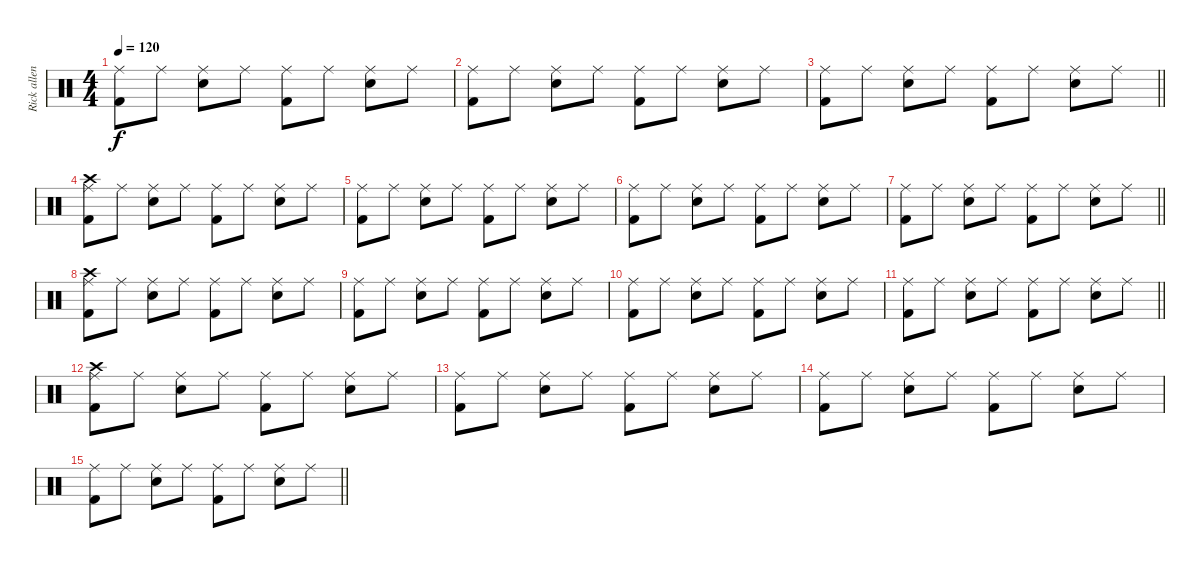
\track ("Rick allen" "Rick allen") {instrument percussion}
\staff {score}
\articulation defaults
\ts (4 4)
\tempo 120
\clef neutral
\ks c
("Ride (middle)" "Kick (hit) 2").8{dy f} "Ride (middle)".8 ("Ride (middle)" "Snare (hit) 2").8 "Ride (middle)".8 ("Ride (middle)" "Kick (hit) 2").8 "Ride (middle)".8 ("Ride (middle)" "Snare (hit) 2").8 "Ride (middle)".8 |
("Ride (middle)" "Kick (hit) 2").8 "Ride (middle)".8 ("Ride (middle)" "Snare (hit) 2").8 "Ride (middle)".8 ("Ride (middle)" "Kick (hit) 2").8 "Ride (middle)".8 ("Ride (middle)" "Snare (hit) 2").8 "Ride (middle)".8 |
\barLineRight lightlight
("Ride (middle)" "Kick (hit) 2").8 "Ride (middle)".8 ("Ride (middle)" "Snare (hit) 2").8 "Ride (middle)".8 ("Ride (middle)" "Kick (hit) 2").8 "Ride (middle)".8 ("Ride (middle)" "Snare (hit) 2").8 "Ride (middle)".8 |
("Crash high (hit)" "Ride (middle)" "Kick (hit) 2").8 "Ride (middle)".8 ("Ride (middle)" "Snare (hit) 2").8 "Ride (middle)".8 ("Ride (middle)" "Kick (hit) 2").8 "Ride (middle)".8 ("Ride (middle)" "Snare (hit) 2").8 "Ride (middle)".8 |
("Ride (middle)" "Kick (hit) 2").8 "Ride (middle)".8 ("Ride (middle)" "Snare (hit) 2").8 "Ride (middle)".8 ("Ride (middle)" "Kick (hit) 2").8 "Ride (middle)".8 ("Ride (middle)" "Snare (hit) 2").8 "Ride (middle)".8 |
("Ride (middle)" "Kick (hit) 2").8 "Ride (middle)".8 ("Ride (middle)" "Snare (hit) 2").8 "Ride (middle)".8 ("Ride (middle)" "Kick (hit) 2").8 "Ride (middle)".8 ("Ride (middle)" "Snare (hit) 2").8 "Ride (middle)".8 |
\barLineRight lightlight
("Ride (middle)" "Kick (hit) 2").8 "Ride (middle)".8 ("Ride (middle)" "Snare (hit) 2").8 "Ride (middle)".8 ("Ride (middle)" "Kick (hit) 2").8 "Ride (middle)".8 ("Ride (middle)" "Snare (hit) 2").8 "Ride (middle)".8 |
("Crash high (hit)" "Ride (middle)" "Kick (hit) 2").8 "Ride (middle)".8 ("Ride (middle)" "Snare (hit) 2").8 "Ride (middle)".8 ("Ride (middle)" "Kick (hit) 2").8 "Ride (middle)".8 ("Ride (middle)" "Snare (hit) 2").8 "Ride (middle)".8 |
("Ride (middle)" "Kick (hit) 2").8 "Ride (middle)".8 ("Ride (middle)" "Snare (hit) 2").8 "Ride (middle)".8 ("Ride (middle)" "Kick (hit) 2").8 "Ride (middle)".8 ("Ride (middle)" "Snare (hit) 2").8 "Ride (middle)".8 |
("Ride (middle)" "Kick (hit) 2").8 "Ride (middle)".8 ("Ride (middle)" "Snare (hit) 2").8 "Ride (middle)".8 ("Ride (middle)" "Kick (hit) 2").8 "Ride (middle)".8 ("Ride (middle)" "Snare (hit) 2").8 "Ride (middle)".8 |
\barLineRight lightlight
("Ride (middle)" "Kick (hit) 2").8 "Ride (middle)".8 ("Ride (middle)" "Snare (hit) 2").8 "Ride (middle)".8 ("Ride (middle)" "Kick (hit) 2").8 "Ride (middle)".8 ("Ride (middle)" "Snare (hit) 2").8 "Ride (middle)".8 |
("Crash high (hit)" "Ride (middle)" "Kick (hit) 2").8 "Ride (middle)".8 ("Ride (middle)" "Snare (hit) 2").8 "Ride (middle)".8 ("Ride (middle)" "Kick (hit) 2").8 "Ride (middle)".8 ("Ride (middle)" "Snare (hit) 2").8 "Ride (middle)".8 |
("Ride (middle)" "Kick (hit) 2").8 "Ride (middle)".8 ("Ride (middle)" "Snare (hit) 2").8 "Ride (middle)".8 ("Ride (middle)" "Kick (hit) 2").8 "Ride (middle)".8 ("Ride (middle)" "Snare (hit) 2").8 "Ride (middle)".8 |
("Ride (middle)" "Kick (hit) 2").8 "Ride (middle)".8 ("Ride (middle)" "Snare (hit) 2").8 "Ride (middle)".8 ("Ride (middle)" "Kick (hit) 2").8 "Ride (middle)".8 ("Ride (middle)" "Snare (hit) 2").8 "Ride (middle)".8 |
\barLineRight lightlight
("Ride (middle)" "Kick (hit) 2").8 "Ride (middle)".8 ("Ride (middle)" "Snare (hit) 2").8 "Ride (middle)".8 ("Ride (middle)" "Kick (hit) 2").8 "Ride (middle)".8 ("Ride (middle)" "Snare (hit) 2").8 "Ride (middle)".8
